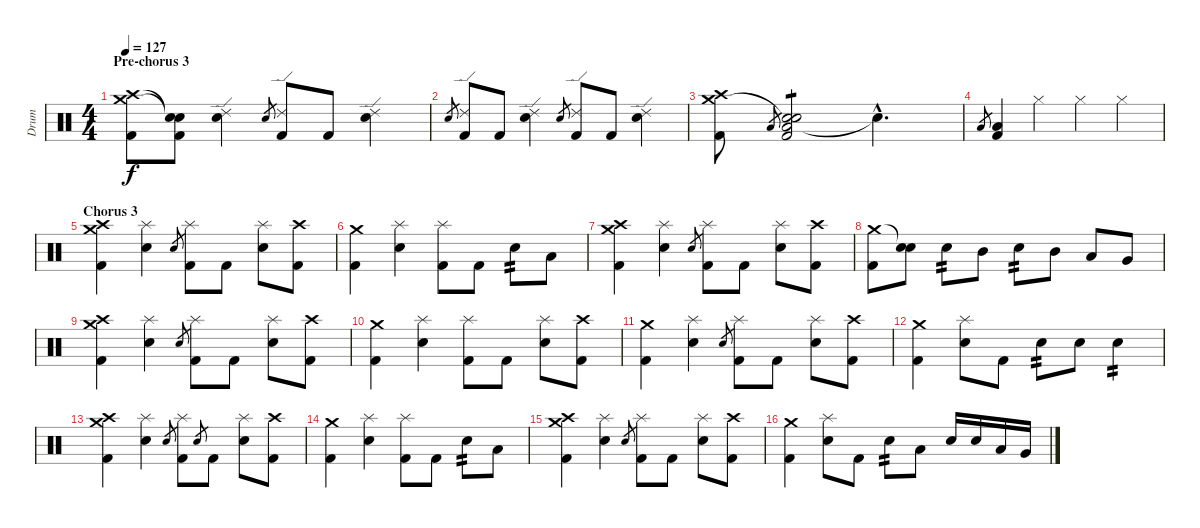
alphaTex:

\track ("Drum" "Drum") {instrument percussion}
\staff {score}
\articulation defaults
\ts (4 4)
\section ("" "Pre-chorus 3")
\tempo 127
\clef neutral
\ks c
("Kick (hit) 2" "Crash high (hit)" "Crash medium (hit)").8{dy f} ("Kick (hit) 2" "Snare (hit)"{t} "Snare (hit)"{t}).8 ("Ride (edge) 2" "Electric Snare (hit)").4 "Electric Snare (hit)".8{gr} ("Ride (edge) 2" "Kick (hit) 2").8 "Kick (hit) 2".8 ("Ride (edge) 2" "Electric Snare (hit)").4 |
"Electric Snare (hit)".8{gr} ("Ride (edge) 2" "Kick (hit) 2").8 "Kick (hit) 2".8 ("Ride (edge) 2" "Electric Snare (hit)").4 "Electric Snare (hit)".8{gr} ("Ride (edge) 2" "Kick (hit) 2").8 "Kick (hit) 2".8 ("Ride (edge) 2" "Electric Snare (hit)").4 |
("Kick (hit) 2" "Crash high (hit)" "Crash medium (hit)").8 "Low Floor Tom (hit)".8{gr} ("Low Floor Tom (hit)" "Kick (hit) 2" "Snare (hit)"{t} "Snare (hit)").2{tp 1} "Snare (hit)"{hac t}.4{d} |
"Low Floor Tom (hit)".8{gr} ("Low Floor Tom (hit)" "Kick (hit) 2").4 "Hi-Hat (closed)".4 "Hi-Hat (closed)".4 "Hi-Hat (closed)".4 |
\section ("" "Chorus 3")
("Kick (hit) 2" "Crash high (hit)" "Crash medium (hit)").4 ("Splash (hit)" "Electric Snare (hit)").4 "Electric Snare (hit)".8{gr} ("Splash (hit)" "Kick (hit) 2").8 "Kick (hit) 2".8 ("Splash (hit)" "Electric Snare (hit)").8 ("Kick (hit) 2" "Crash high (hit)").8 |
("Kick (hit) 2" "Crash medium (hit)").4 ("Splash (hit)" "Electric Snare (hit)").4 ("Splash (hit)" "Kick (hit) 2").8 "Kick (hit) 2".8 "Electric Snare (hit)".8{tp 2} "Low Tom (hit)".8 |
("Kick (hit) 2" "Crash high (hit)" "Crash medium (hit)").4 ("Splash (hit)" "Electric Snare (hit)").4 "Electric Snare (hit)".8{gr} ("Splash (hit)" "Kick (hit) 2").8 "Kick (hit) 2".8 ("Splash (hit)" "Electric Snare (hit)").8 ("Kick (hit) 2" "Crash high (hit)").8 |
("Kick (hit) 2" "Crash medium (hit)").8 ("Electric Snare (hit)" "Snare (hit)"{t}).8 "Electric Snare (hit)".8{tp 2} "Mid Tom (hit)".8 "Electric Snare (hit)".8{tp 2} "Mid Tom (hit)".8 "Low Tom (hit)".8 "Very Low Tom (hit)".8 |
("Kick (hit) 2" "Crash high (hit)" "Crash medium (hit)").4 ("Splash (hit)" "Electric Snare (hit)").4 "Electric Snare (hit)".8{gr} ("Splash (hit)" "Kick (hit) 2").8 "Kick (hit) 2".8 ("Splash (hit)" "Electric Snare (hit)").8 ("Kick (hit) 2" "Crash high (hit)").8 |
("Kick (hit) 2" "Crash medium (hit)").4 ("Splash (hit)" "Electric Snare (hit)").4 ("Splash (hit)" "Kick (hit) 2").8 "Kick (hit) 2".8 ("Splash (hit)" "Electric Snare (hit)").8 ("Kick (hit) 2" "Crash high (hit)").8 |
("Kick (hit) 2" "Crash medium (hit)").4 ("Splash (hit)" "Electric Snare (hit)").4 "Electric Snare (hit)".8{gr} ("Splash (hit)" "Kick (hit) 2").8 "Kick (hit) 2".8 ("Splash (hit)" "Electric Snare (hit)").8 ("Kick (hit) 2" "Crash high (hit)").8 |
("Kick (hit) 2" "Crash medium (hit)").4 ("Splash (hit)" "Electric Snare (hit)").8 "Kick (hit) 2".8 "Electric Snare (hit)".8{tp 2} "Electric Snare (hit)".8 "Electric Snare (hit)".4{tp 2} |
\section ("" "")
("Kick (hit) 2" "Crash high (hit)" "Crash medium (hit)").4 ("Splash (hit)" "Electric Snare (hit)").4 "Electric Snare (hit)".8{gr} ("Splash (hit)" "Kick (hit) 2").8 "Electric Snare (hit)".8{gr} "Kick (hit) 2".8 ("Splash (hit)" "Electric Snare (hit)").8 ("Kick (hit) 2" "Crash high (hit)").8 |
("Kick (hit) 2" "Crash medium (hit)").4 ("Splash (hit)" "Electric Snare (hit)").4 ("Splash (hit)" "Kick (hit) 2").8 "Kick (hit) 2".8 "Electric Snare (hit)".8{tp 2} "Low Tom (hit)".8 |
("Kick (hit) 2" "Crash high (hit)" "Crash medium (hit)").4 ("Splash (hit)" "Electric Snare (hit)").4 "Electric Snare (hit)".8{gr} ("Splash (hit)" "Kick (hit) 2").8 "Kick (hit) 2".8 ("Splash (hit)" "Electric Snare (hit)").8 ("Kick (hit) 2" "Crash high (hit)").8 |
("Kick (hit) 2" "Crash medium (hit)").4 ("Splash (hit)" "Electric Snare (hit)").8 "Kick (hit) 2".8 "Electric Snare (hit)".8{tp 2} "Low Tom (hit)".8 "Electric Snare (hit)".16 "Electric Snare (hit)".16 "Low Tom (hit)".16 "Very Low Tom (hit)".16
